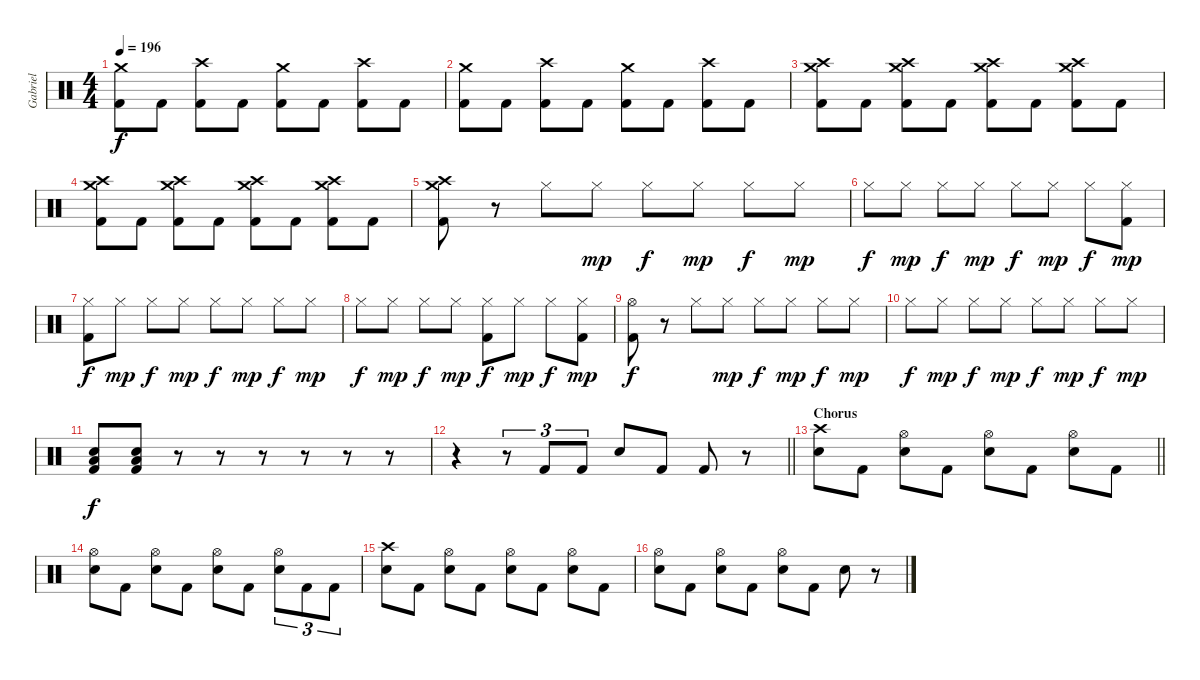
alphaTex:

\track ("Gabriel" "Gabriel") {instrument percussion}
\staff {score}
\articulation defaults
\ts (4 4)
\tempo 196
\clef neutral
\ks c
("Crash medium (hit)" "Kick (hit) 2").8{dy f} "Kick (hit) 2".8 ("Crash high (hit)" "Kick (hit) 2").8 "Kick (hit) 2".8 ("Crash medium (hit)" "Kick (hit) 2").8 "Kick (hit) 2".8 ("Crash high (hit)" "Kick (hit) 2").8 "Kick (hit) 2".8 |
("Crash medium (hit)" "Kick (hit) 2").8 "Kick (hit) 2".8 ("Crash high (hit)" "Kick (hit) 2").8 "Kick (hit) 2".8 ("Crash medium (hit)" "Kick (hit) 2").8 "Kick (hit) 2".8 ("Crash high (hit)" "Kick (hit) 2").8 "Kick (hit) 2".8 |
("Crash medium (hit)" "Crash high (hit)" "Kick (hit) 2").8 "Kick (hit) 2".8 ("Crash high (hit)" "Crash medium (hit)" "Kick (hit) 2").8 "Kick (hit) 2".8 ("Crash medium (hit)" "Crash high (hit)" "Kick (hit) 2").8 "Kick (hit) 2".8 ("Crash high (hit)" "Crash medium (hit)" "Kick (hit) 2").8 "Kick (hit) 2".8 |
("Crash medium (hit)" "Crash high (hit)" "Kick (hit) 2").8 "Kick (hit) 2".8 ("Crash high (hit)" "Crash medium (hit)" "Kick (hit) 2").8 "Kick (hit) 2".8 ("Crash medium (hit)" "Crash high (hit)" "Kick (hit) 2").8 "Kick (hit) 2".8 ("Crash high (hit)" "Crash medium (hit)" "Kick (hit) 2").8 "Kick (hit) 2".8 |
("Crash high (hit)" "Crash medium (hit)" "Kick (hit) 2").8 r.8 "Hi-Hat (closed)".8 "Hi-Hat (closed)".8{dy mp} "Hi-Hat (closed)".8{dy f} "Hi-Hat (closed)".8{dy mp} "Hi-Hat (closed)".8{dy f} "Hi-Hat (closed)".8{dy mp} |
"Hi-Hat (closed)".8{dy f} "Hi-Hat (closed)".8{dy mp} "Hi-Hat (closed)".8{dy f} "Hi-Hat (closed)".8{dy mp} "Hi-Hat (closed)".8{dy f} "Hi-Hat (closed)".8{dy mp} "Hi-Hat (closed)".8{dy f} ("Hi-Hat (closed)" "Kick (hit) 2").8{dy mp} |
("Hi-Hat (closed)" "Kick (hit) 2").8{dy f} "Hi-Hat (closed)".8{dy mp} "Hi-Hat (closed)".8{dy f} "Hi-Hat (closed)".8{dy mp} "Hi-Hat (closed)".8{dy f} "Hi-Hat (closed)".8{dy mp} "Hi-Hat (closed)".8{dy f} "Hi-Hat (closed)".8{dy mp} |
"Hi-Hat (closed)".8{dy f} "Hi-Hat (closed)".8{dy mp} "Hi-Hat (closed)".8{dy f} "Hi-Hat (closed)".8{dy mp} ("Hi-Hat (closed)" "Kick (hit) 2").8{dy f} "Hi-Hat (closed)".8{dy mp} "Hi-Hat (closed)".8{dy f} ("Hi-Hat (closed)" "Kick (hit) 2").8{dy mp} |
("Hi-Hat (open)" "Kick (hit) 2").8{dy f} r.8 "Hi-Hat (closed)".8 "Hi-Hat (closed)".8{dy mp} "Hi-Hat (closed)".8{dy f} "Hi-Hat (closed)".8{dy mp} "Hi-Hat (closed)".8{dy f} "Hi-Hat (closed)".8{dy mp} |
"Hi-Hat (closed)".8{dy f} "Hi-Hat (closed)".8{dy mp} "Hi-Hat (closed)".8{dy f} "Hi-Hat (closed)".8{dy mp} "Hi-Hat (closed)".8{dy f} "Hi-Hat (closed)".8{dy mp} "Hi-Hat (closed)".8{dy f} "Hi-Hat (closed)".8{dy mp} |
("Low Tom (hit)" "Electric Snare (hit)" "Kick (hit) 2").8{dy f} ("Low Tom (hit)" "Electric Snare (hit)" "Kick (hit) 2").8 r.8 r.8 r.8 r.8 r.8 r.8 |
\barLineRight lightlight
r.4 r.8{tu (3 2)} "Kick (hit) 2".8{tu (3 2)} "Kick (hit) 2".8{tu (3 2)} "Electric Snare (hit)".8 "Kick (hit) 2".8 "Kick (hit) 2".8 r.8 |
\section ("" "Chorus")
\barLineRight lightlight
("Crash high (hit)" "Electric Snare (hit)").8 "Kick (hit) 2".8 ("Hi-Hat (open)" "Electric Snare (hit)").8 "Kick (hit) 2".8 ("Hi-Hat (open)" "Electric Snare (hit)").8 "Kick (hit) 2".8 ("Hi-Hat (open)" "Electric Snare (hit)").8 "Kick (hit) 2".8 |
("Hi-Hat (open)" "Electric Snare (hit)").8 "Kick (hit) 2".8 ("Hi-Hat (open)" "Electric Snare (hit)").8 "Kick (hit) 2".8 ("Hi-Hat (open)" "Electric Snare (hit)").8 "Kick (hit) 2".8 ("Hi-Hat (open)" "Electric Snare (hit)").8{tu (3 2)} "Kick (hit) 2".8{tu (3 2)} "Kick (hit) 2".8{tu (3 2)} |
("Crash high (hit)" "Electric Snare (hit)").8 "Kick (hit) 2".8 ("Hi-Hat (open)" "Electric Snare (hit)").8 "Kick (hit) 2".8 ("Hi-Hat (open)" "Electric Snare (hit)").8 "Kick (hit) 2".8 ("Hi-Hat (open)" "Electric Snare (hit)").8 "Kick (hit) 2".8 |
("Hi-Hat (open)" "Electric Snare (hit)").8 "Kick (hit) 2".8 ("Hi-Hat (open)" "Electric Snare (hit)").8 "Kick (hit) 2".8 ("Hi-Hat (open)" "Electric Snare (hit)").8 "Kick (hit) 2".8 "Electric Snare (hit)".8 r.8
